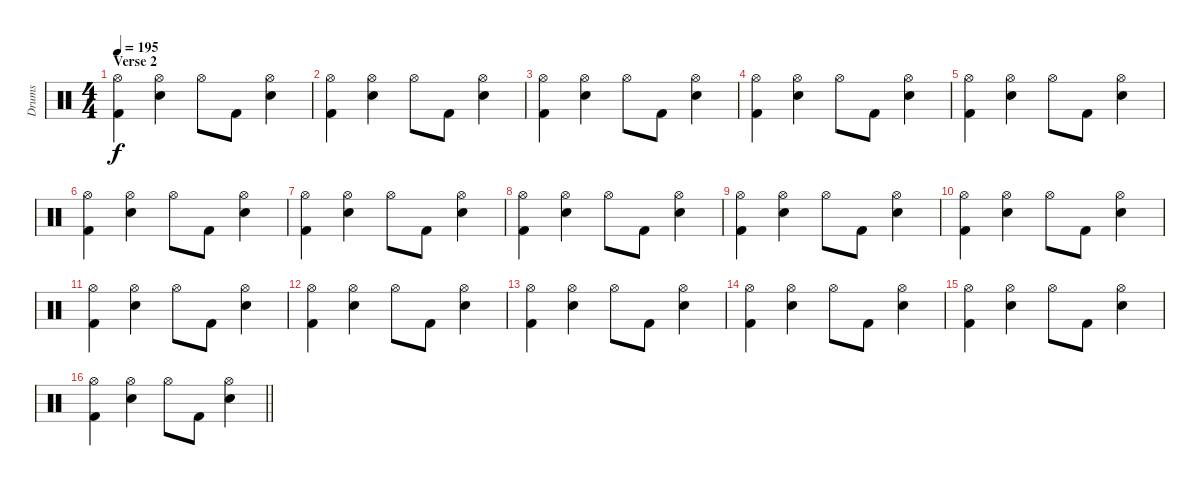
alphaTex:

\track ("Drums" "Drums") {instrument percussion}
\staff {score}
\articulation defaults
\ts (4 4)
\section ("" "Verse 2")
\tempo 195
\clef neutral
\ks c
("Hi-Hat (open)" "Kick (hit) 2").4{dy f} ("Hi-Hat (open)" "Snare (hit) 2").4 "Hi-Hat (open)".8 "Kick (hit) 2".8 ("Hi-Hat (open)" "Snare (hit) 2").4 |
("Hi-Hat (open)" "Kick (hit) 2").4 ("Hi-Hat (open)" "Snare (hit) 2").4 "Hi-Hat (open)".8 "Kick (hit) 2".8 ("Hi-Hat (open)" "Snare (hit) 2").4 |
("Hi-Hat (open)" "Kick (hit) 2").4 ("Hi-Hat (open)" "Snare (hit) 2").4 "Hi-Hat (open)".8 "Kick (hit) 2".8 ("Hi-Hat (open)" "Snare (hit) 2").4 |
("Hi-Hat (open)" "Kick (hit) 2").4 ("Hi-Hat (open)" "Snare (hit) 2").4 "Hi-Hat (open)".8 "Kick (hit) 2".8 ("Hi-Hat (open)" "Snare (hit) 2").4 |
("Hi-Hat (open)" "Kick (hit) 2").4 ("Hi-Hat (open)" "Snare (hit) 2").4 "Hi-Hat (open)".8 "Kick (hit) 2".8 ("Hi-Hat (open)" "Snare (hit) 2").4 |
("Hi-Hat (open)" "Kick (hit) 2").4 ("Hi-Hat (open)" "Snare (hit) 2").4 "Hi-Hat (open)".8 "Kick (hit) 2".8 ("Hi-Hat (open)" "Snare (hit) 2").4 |
("Hi-Hat (open)" "Kick (hit) 2").4 ("Hi-Hat (open)" "Snare (hit) 2").4 "Hi-Hat (open)".8 "Kick (hit) 2".8 ("Hi-Hat (open)" "Snare (hit) 2").4 |
("Hi-Hat (open)" "Kick (hit) 2").4 ("Hi-Hat (open)" "Snare (hit) 2").4 "Hi-Hat (open)".8 "Kick (hit) 2".8 ("Hi-Hat (open)" "Snare (hit) 2").4 |
("Hi-Hat (open)" "Kick (hit) 2").4 ("Hi-Hat (open)" "Snare (hit) 2").4 "Hi-Hat (open)".8 "Kick (hit) 2".8 ("Hi-Hat (open)" "Snare (hit) 2").4 |
("Hi-Hat (open)" "Kick (hit) 2").4 ("Hi-Hat (open)" "Snare (hit) 2").4 "Hi-Hat (open)".8 "Kick (hit) 2".8 ("Hi-Hat (open)" "Snare (hit) 2").4 |
("Hi-Hat (open)" "Kick (hit) 2").4 ("Hi-Hat (open)" "Snare (hit) 2").4 "Hi-Hat (open)".8 "Kick (hit) 2".8 ("Hi-Hat (open)" "Snare (hit) 2").4 |
("Hi-Hat (open)" "Kick (hit) 2").4 ("Hi-Hat (open)" "Snare (hit) 2").4 "Hi-Hat (open)".8 "Kick (hit) 2".8 ("Hi-Hat (open)" "Snare (hit) 2").4 |
("Hi-Hat (open)" "Kick (hit) 2").4 ("Hi-Hat (open)" "Snare (hit) 2").4 "Hi-Hat (open)".8 "Kick (hit) 2".8 ("Hi-Hat (open)" "Snare (hit) 2").4 |
("Hi-Hat (open)" "Kick (hit) 2").4 ("Hi-Hat (open)" "Snare (hit) 2").4 "Hi-Hat (open)".8 "Kick (hit) 2".8 ("Hi-Hat (open)" "Snare (hit) 2").4 |
("Hi-Hat (open)" "Kick (hit) 2").4 ("Hi-Hat (open)" "Snare (hit) 2").4 "Hi-Hat (open)".8 "Kick (hit) 2".8 ("Hi-Hat (open)" "Snare (hit) 2").4 |
\barLineRight lightlight
("Hi-Hat (open)" "Kick (hit) 2").4 ("Hi-Hat (open)" "Snare (hit) 2").4 "Hi-Hat (open)".8 "Kick (hit) 2".8 ("Hi-Hat (open)" "Snare (hit) 2").4
